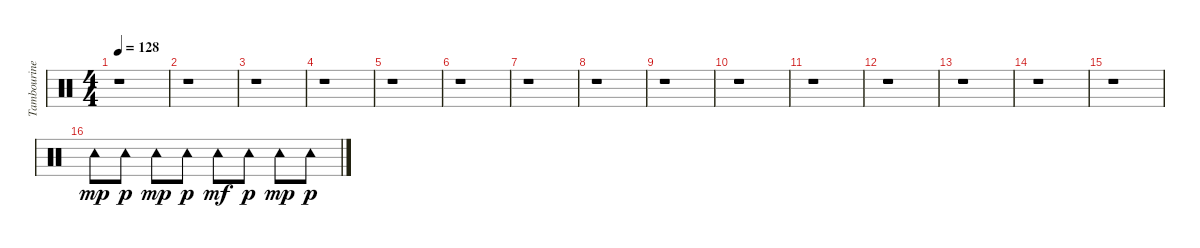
\track ("Tambourine" "Tambourine") {instrument percussion}
\staff {score}
\articulation defaults
\ts (4 4)
\tempo 128
\clef neutral
\ks c
r.1{dy mp} |
r.1 |
r.1 |
r.1 |
r.1 |
r.1 |
r.1 |
r.1 |
r.1 |
r.1 |
r.1 |
r.1 |
r.1 |
r.1 |
r.1 |
"Tambourine (hit)".8 "Tambourine (hit)".8{dy p} "Tambourine (hit)".8{dy mp} "Tambourine (hit)".8{dy p} "Tambourine (hit)".8{dy mf} "Tambourine (hit)".8{dy p} "Tambourine (hit)".8{dy mp} "Tambourine (hit)".8{dy p}
